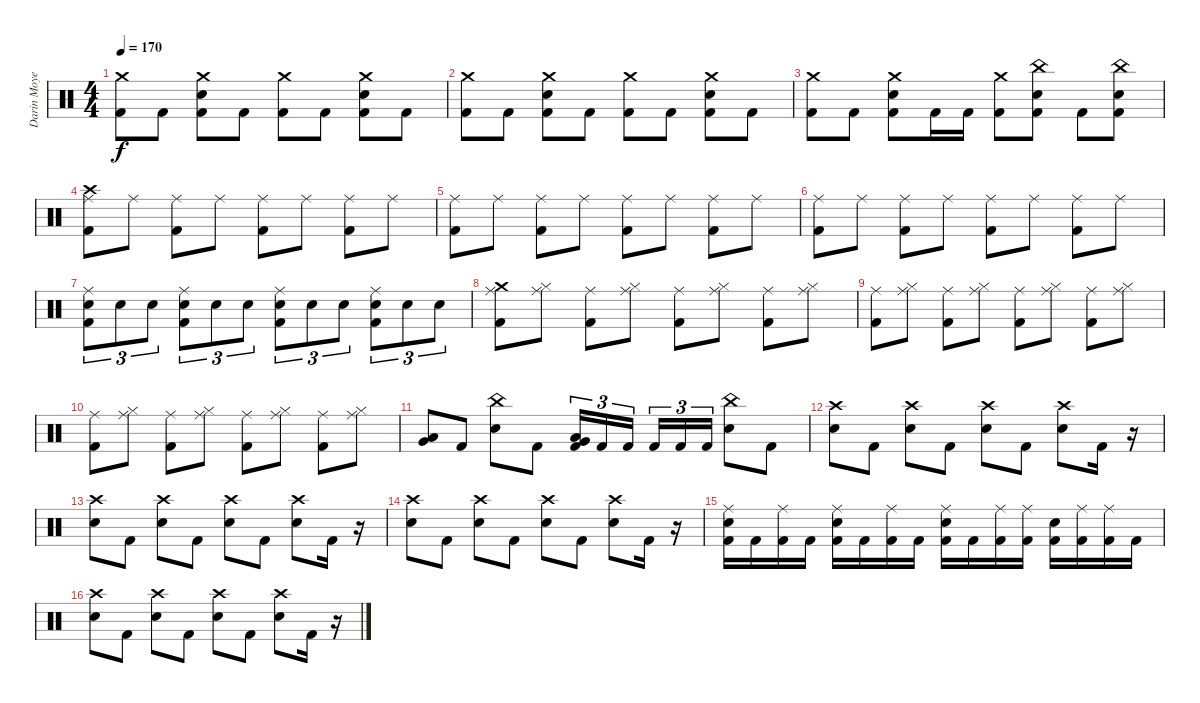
\track ("Darin Moyen" "Darin Moye") {instrument percussion}
\staff {score}
\articulation defaults
\ts (4 4)
\tempo 170
\clef neutral
\ks c
("Crash medium (hit)" "Kick (hit) 2").8{dy f} "Kick (hit) 2".8 ("Crash medium (hit)" "Electric Snare (hit)" "Kick (hit) 2").8 "Kick (hit) 2".8 ("Crash medium (hit)" "Kick (hit) 2").8 "Kick (hit) 2".8 ("Crash medium (hit)" "Electric Snare (hit)" "Kick (hit) 2").8 "Kick (hit) 2".8 |
("Crash medium (hit)" "Kick (hit) 2").8 "Kick (hit) 2".8 ("Crash medium (hit)" "Electric Snare (hit)" "Kick (hit) 2").8 "Kick (hit) 2".8 ("Crash medium (hit)" "Kick (hit) 2").8 "Kick (hit) 2".8 ("Crash medium (hit)" "Electric Snare (hit)" "Kick (hit) 2").8 "Kick (hit) 2".8 |
("Crash medium (hit)" "Kick (hit) 2").8 "Kick (hit) 2".8 ("Crash medium (hit)" "Electric Snare (hit)" "Kick (hit) 2").8 "Kick (hit) 2".16 "Kick (hit) 2".16 ("Crash medium (hit)" "Kick (hit) 2").8 ("China (hit)" "Electric Snare (hit)" "Kick (hit) 2").8 "Kick (hit) 2".8 ("China (hit)" "Electric Snare (hit)" "Kick (hit) 2").8 |
("Crash high (hit)" "Ride (middle)" "Kick (hit) 2").8 "Ride (middle)".8 ("Ride (middle)" "Kick (hit) 2").8 "Ride (middle)".8 ("Ride (middle)" "Kick (hit) 2").8 "Ride (middle)".8 ("Ride (middle)" "Kick (hit) 2").8 "Ride (middle)".8 |
("Ride (middle)" "Kick (hit) 2").8 "Ride (middle)".8 ("Ride (middle)" "Kick (hit) 2").8 "Ride (middle)".8 ("Ride (middle)" "Kick (hit) 2").8 "Ride (middle)".8 ("Ride (middle)" "Kick (hit) 2").8 "Ride (middle)".8 |
("Ride (middle)" "Kick (hit) 2").8 "Ride (middle)".8 ("Ride (middle)" "Kick (hit) 2").8 "Ride (middle)".8 ("Ride (middle)" "Kick (hit) 2").8 "Ride (middle)".8 ("Ride (middle)" "Kick (hit) 2").8 "Ride (middle)".8 |
("Ride (middle)" "Electric Snare (hit)" "Kick (hit) 2").8{tu (3 2)} "Electric Snare (hit)".8{tu (3 2)} "Electric Snare (hit)".8{tu (3 2)} ("Ride (middle)" "Electric Snare (hit)" "Kick (hit) 2").8{tu (3 2)} "Electric Snare (hit)".8{tu (3 2)} "Electric Snare (hit)".8{tu (3 2)} ("Ride (middle)" "Electric Snare (hit)" "Kick (hit) 2").8{tu (3 2)} "Electric Snare (hit)".8{tu (3 2)} "Electric Snare (hit)".8{tu (3 2)} ("Ride (middle)" "Electric Snare (hit)" "Kick (hit) 2").8{tu (3 2)} "Electric Snare (hit)".8{tu (3 2)} "Electric Snare (hit)".8{tu (3 2)} |
("Crash medium (hit)" "Ride (middle)" "Kick (hit) 2").8 ("Hi-Hat (closed)" "Ride (middle)").8 ("Ride (middle)" "Kick (hit) 2").8 ("Hi-Hat (closed)" "Ride (middle)").8 ("Ride (middle)" "Kick (hit) 2").8 ("Hi-Hat (closed)" "Ride (middle)").8 ("Ride (middle)" "Kick (hit) 2").8 ("Hi-Hat (closed)" "Ride (middle)").8 |
("Ride (middle)" "Kick (hit) 2").8 ("Hi-Hat (closed)" "Ride (middle)").8 ("Ride (middle)" "Kick (hit) 2").8 ("Hi-Hat (closed)" "Ride (middle)").8 ("Ride (middle)" "Kick (hit) 2").8 ("Hi-Hat (closed)" "Ride (middle)").8 ("Ride (middle)" "Kick (hit) 2").8 ("Hi-Hat (closed)" "Ride (middle)").8 |
("Ride (middle)" "Kick (hit) 2").8 ("Hi-Hat (closed)" "Ride (middle)").8 ("Ride (middle)" "Kick (hit) 2").8 ("Hi-Hat (closed)" "Ride (middle)").8 ("Ride (middle)" "Kick (hit) 2").8 ("Hi-Hat (closed)" "Ride (middle)").8 ("Ride (middle)" "Kick (hit) 2").8 ("Hi-Hat (closed)" "Ride (middle)").8 |
("Low Tom (hit)" "Very Low Tom (hit)").8 "Kick (hit) 2".8 ("China (hit)" "Electric Snare (hit)").8 "Kick (hit) 2".8 ("Low Tom (hit)" "Very Low Tom (hit)" "Kick (hit) 2").16{tu (3 2)} "Kick (hit) 2".16{tu (3 2)} "Kick (hit) 2".16{tu (3 2) beam splitsecondary} "Kick (hit) 2".16{tu (3 2)} "Kick (hit) 2".16{tu (3 2)} "Kick (hit) 2".16{tu (3 2)} ("China (hit)" "Electric Snare (hit)").8 "Kick (hit) 2".8 |
("Crash high (hit)" "Electric Snare (hit)").8 "Kick (hit) 2".8 ("Crash high (hit)" "Electric Snare (hit)").8 "Kick (hit) 2".8 ("Crash high (hit)" "Electric Snare (hit)").8 "Kick (hit) 2".8 ("Crash high (hit)" "Electric Snare (hit)").8 "Kick (hit) 2".16 r.16 |
("Crash high (hit)" "Electric Snare (hit)").8 "Kick (hit) 2".8 ("Crash high (hit)" "Electric Snare (hit)").8 "Kick (hit) 2".8 ("Crash high (hit)" "Electric Snare (hit)").8 "Kick (hit) 2".8 ("Crash high (hit)" "Electric Snare (hit)").8 "Kick (hit) 2".16 r.16 |
("Crash high (hit)" "Electric Snare (hit)").8 "Kick (hit) 2".8 ("Crash high (hit)" "Electric Snare (hit)").8 "Kick (hit) 2".8 ("Crash high (hit)" "Electric Snare (hit)").8 "Kick (hit) 2".8 ("Crash high (hit)" "Electric Snare (hit)").8 "Kick (hit) 2".16 r.16 |
("Ride (middle)" "Electric Snare (hit)" "Kick (hit) 2").16 "Kick (hit) 2".16 ("Ride (middle)" "Kick (hit) 2").16 "Kick (hit) 2".16 ("Ride (middle)" "Electric Snare (hit)" "Kick (hit) 2").16 "Kick (hit) 2".16 ("Ride (middle)" "Kick (hit) 2").16 "Kick (hit) 2".16 ("Ride (middle)" "Electric Snare (hit)" "Kick (hit) 2").16 "Kick (hit) 2".16 ("Ride (middle)" "Kick (hit) 2").16 ("Ride (middle)" "Kick (hit) 2").16 ("Electric Snare (hit)" "Kick (hit) 2").16 ("Ride (middle)" "Kick (hit) 2").16 ("Ride (middle)" "Kick (hit) 2").16 "Kick (hit) 2".16 |
("Crash high (hit)" "Electric Snare (hit)").8 "Kick (hit) 2".8 ("Crash high (hit)" "Electric Snare (hit)").8 "Kick (hit) 2".8 ("Crash high (hit)" "Electric Snare (hit)").8 "Kick (hit) 2".8 ("Crash high (hit)" "Electric Snare (hit)").8 "Kick (hit) 2".16 r.16
